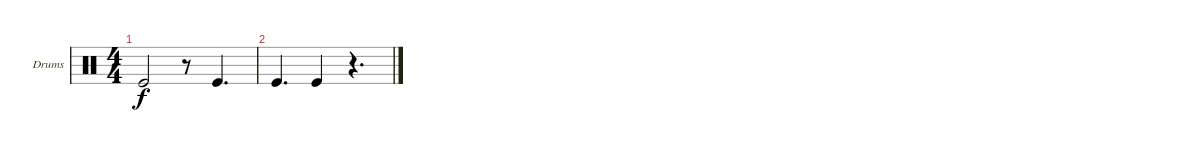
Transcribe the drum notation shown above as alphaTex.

\defaultSystemsLayout 4
\bracketExtendMode groupsimilarinstruments
\firstSystemTrackNameOrientation horizontal
\otherSystemsTrackNameOrientation horizontal
\track ("Drumkit" "Drums") {instrument percussion}
\staff {score}
\articulation defaults
\ts (4 4)
\tempo (120 hide)
\clef neutral
\ks c "Kick (hit)".2{dy f}
r.8 "Kick (hit)".4{d} |
"Kick (hit)".4{d} "Kick (hit)".4 r.4{d}
